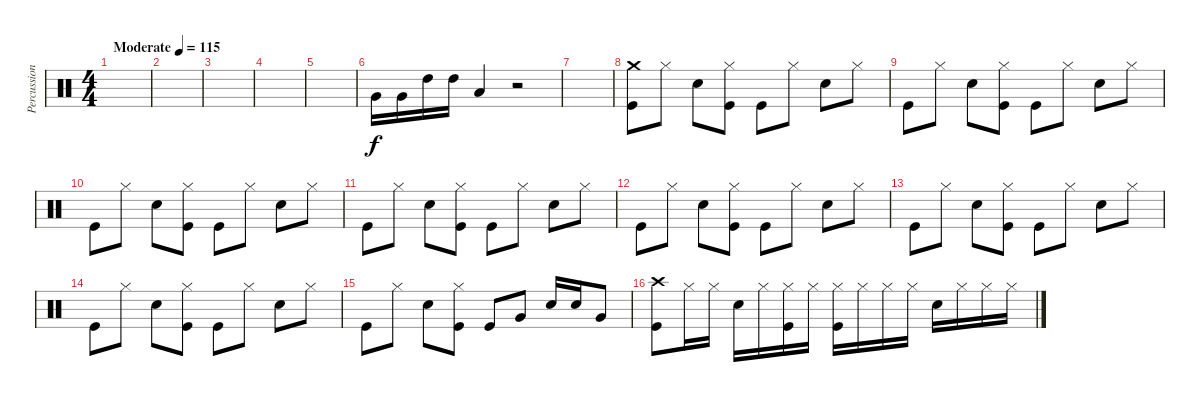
\track ("Percussion" "Percussion") {instrument percussion}
\staff {score}
\articulation defaults
\ts (4 4)
\tempo (115 "Moderate")
\clef neutral
\ks c
|
|
|
|
|
"Very Low Tom (hit)".16 "Very Low Tom (hit)".16 "High Tom (hit)".16 "High Tom (hit)".16 "Low Floor Tom (hit)".4 r.2 |
|
("Crash medium (hit)" "Kick (hit)").8 "Hi-Hat (closed)".8 "Snare (hit) 2".8 ("Kick (hit)" "Hi-Hat (closed)").8 "Kick (hit)".8 "Hi-Hat (closed)".8 "Snare (hit) 2".8 "Hi-Hat (closed)".8 |
"Kick (hit)".8 "Hi-Hat (closed)".8 "Snare (hit) 2".8 ("Kick (hit)" "Hi-Hat (closed)").8 "Kick (hit)".8 "Hi-Hat (closed)".8 "Snare (hit) 2".8 "Hi-Hat (closed)".8 |
"Kick (hit)".8 "Hi-Hat (closed)".8 "Snare (hit) 2".8 ("Kick (hit)" "Hi-Hat (closed)").8 "Kick (hit)".8 "Hi-Hat (closed)".8 "Snare (hit) 2".8 "Hi-Hat (closed)".8 |
"Kick (hit)".8 "Hi-Hat (closed)".8 "Snare (hit) 2".8 ("Kick (hit)" "Hi-Hat (closed)").8 "Kick (hit)".8 "Hi-Hat (closed)".8 "Snare (hit) 2".8 "Hi-Hat (closed)".8 |
"Kick (hit)".8 "Hi-Hat (closed)".8 "Snare (hit) 2".8 ("Kick (hit)" "Hi-Hat (closed)").8 "Kick (hit)".8 "Hi-Hat (closed)".8 "Snare (hit) 2".8 "Hi-Hat (closed)".8 |
"Kick (hit)".8 "Hi-Hat (closed)".8 "Snare (hit) 2".8 ("Kick (hit)" "Hi-Hat (closed)").8 "Kick (hit)".8 "Hi-Hat (closed)".8 "Snare (hit) 2".8 "Hi-Hat (closed)".8 |
"Kick (hit)".8 "Hi-Hat (closed)".8 "Snare (hit) 2".8 ("Kick (hit)" "Hi-Hat (closed)").8 "Kick (hit)".8 "Hi-Hat (closed)".8 "Snare (hit) 2".8 "Hi-Hat (closed)".8 |
"Kick (hit)".8 "Hi-Hat (closed)".8 "Snare (hit) 2".8 ("Kick (hit)" "Hi-Hat (closed)").8 "Kick (hit)".8 "Very Low Tom (hit)".8 "Snare (hit) 2".16 "Snare (hit) 2".16 "Very Low Tom (hit)".8 |
("Kick (hit)" "Crash high (hit)").8 "Hi-Hat (closed)".16 "Hi-Hat (closed)".16 "Snare (hit) 2".16 "Hi-Hat (closed)".16 ("Kick (hit)" "Hi-Hat (closed)").16 "Hi-Hat (closed)".16 ("Kick (hit)" "Hi-Hat (closed)").16 "Hi-Hat (closed)".16 "Hi-Hat (closed)".16 "Hi-Hat (closed)".16 "Snare (hit) 2".16 "Hi-Hat (closed)".16 "Hi-Hat (closed)".16 "Hi-Hat (closed)".16
